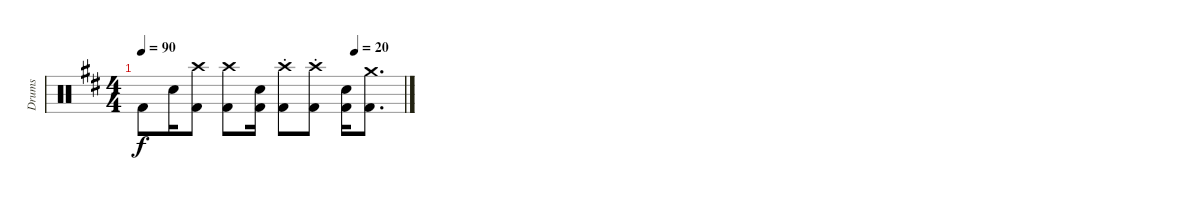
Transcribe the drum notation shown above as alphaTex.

\track ("Drums" "Drums") {instrument percussion}
\staff {score}
\articulation defaults
\ts (4 4)
\tempo 90
\tempo (20 0.8125)
\clef neutral
\ks d "Kick (hit) 2".8{dy f} "Snare (hit) 2".16
("Kick (hit) 2" "Crash high (hit)").8 ("Crash high (hit)" "Kick (hit) 2").8 ("Snare (hit) 2" "Kick (hit) 2").16 ("Crash high (hit)"{st} "Kick (hit) 2"{st}).8 ("Crash high (hit)"{st} "Kick (hit) 2"{st}).8 ("Snare (hit) 2" "Kick (hit) 2").16 ("Crash medium (hit)" "Kick (hit) 2").8{d}
